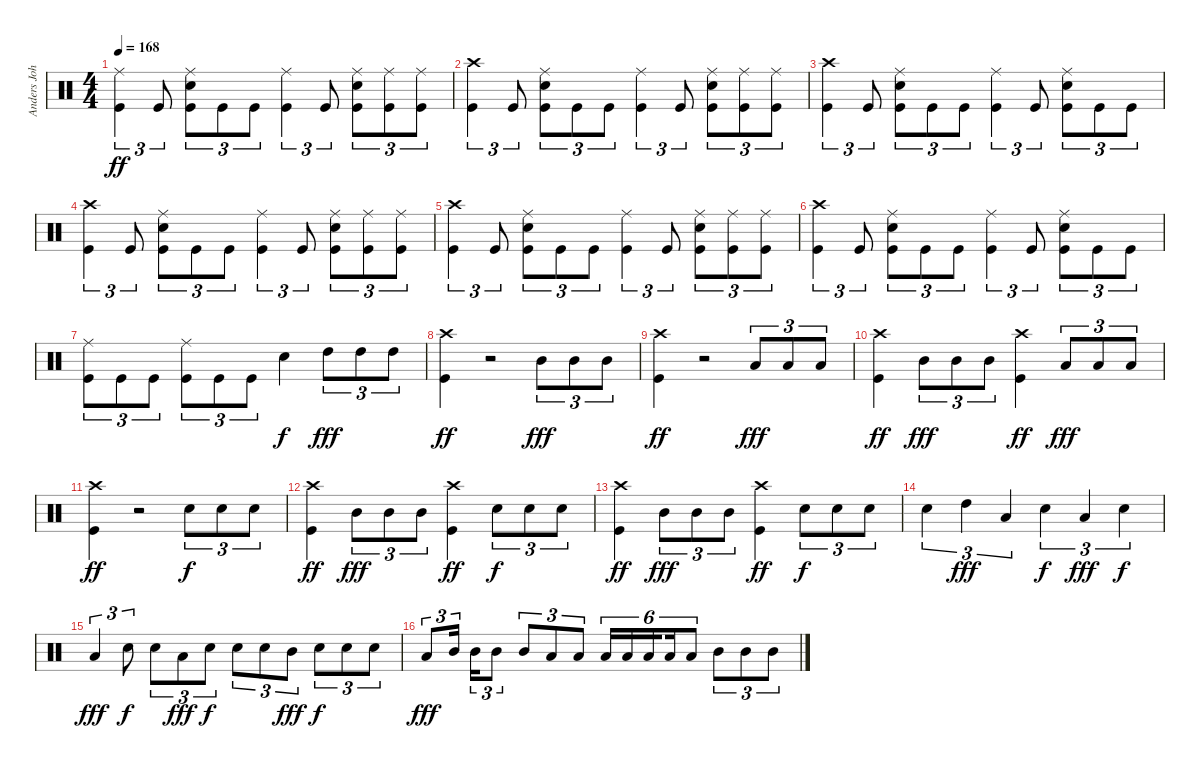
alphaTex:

\track ("Anders Johansson (Drums)" "Anders Joh") {instrument percussion}
\staff {score}
\articulation defaults
\ts (4 4)
\tempo 168
\clef neutral
\ks c
("Ride (middle)" "Kick (hit)").4{tu (3 2) dy ff} "Kick (hit)".8{tu (3 2)} ("Ride (middle)" "Electric Snare (hit)" "Kick (hit)").8{tu (3 2)} "Kick (hit)".8{tu (3 2)} "Kick (hit)".8{tu (3 2)} ("Ride (middle)" "Kick (hit)").4{tu (3 2)} "Kick (hit)".8{tu (3 2)} ("Ride (middle)" "Electric Snare (hit)" "Kick (hit)").8{tu (3 2)} ("Ride (middle)" "Kick (hit)").8{tu (3 2)} ("Ride (middle)" "Kick (hit)").8{tu (3 2)} |
("Crash high (hit)" "Kick (hit)").4{tu (3 2)} "Kick (hit)".8{tu (3 2)} ("Ride (middle)" "Electric Snare (hit)" "Kick (hit)").8{tu (3 2)} "Kick (hit)".8{tu (3 2)} "Kick (hit)".8{tu (3 2)} ("Ride (middle)" "Kick (hit)").4{tu (3 2)} "Kick (hit)".8{tu (3 2)} ("Ride (middle)" "Electric Snare (hit)" "Kick (hit)").8{tu (3 2)} ("Ride (middle)" "Kick (hit)").8{tu (3 2)} ("Ride (middle)" "Kick (hit)").8{tu (3 2)} |
("Crash high (hit)" "Kick (hit)").4{tu (3 2)} "Kick (hit)".8{tu (3 2)} ("Ride (middle)" "Electric Snare (hit)" "Kick (hit)").8{tu (3 2)} "Kick (hit)".8{tu (3 2)} "Kick (hit)".8{tu (3 2)} ("Ride (middle)" "Kick (hit)").4{tu (3 2)} "Kick (hit)".8{tu (3 2)} ("Ride (middle)" "Electric Snare (hit)" "Kick (hit)").8{tu (3 2)} "Kick (hit)".8{tu (3 2)} "Kick (hit)".8{tu (3 2)} |
("Crash high (hit)" "Kick (hit)").4{tu (3 2)} "Kick (hit)".8{tu (3 2)} ("Ride (middle)" "Electric Snare (hit)" "Kick (hit)").8{tu (3 2)} "Kick (hit)".8{tu (3 2)} "Kick (hit)".8{tu (3 2)} ("Ride (middle)" "Kick (hit)").4{tu (3 2)} "Kick (hit)".8{tu (3 2)} ("Ride (middle)" "Electric Snare (hit)" "Kick (hit)").8{tu (3 2)} ("Ride (middle)" "Kick (hit)").8{tu (3 2)} ("Ride (middle)" "Kick (hit)").8{tu (3 2)} |
("Crash high (hit)" "Kick (hit)").4{tu (3 2)} "Kick (hit)".8{tu (3 2)} ("Ride (middle)" "Electric Snare (hit)" "Kick (hit)").8{tu (3 2)} "Kick (hit)".8{tu (3 2)} "Kick (hit)".8{tu (3 2)} ("Ride (middle)" "Kick (hit)").4{tu (3 2)} "Kick (hit)".8{tu (3 2)} ("Ride (middle)" "Electric Snare (hit)" "Kick (hit)").8{tu (3 2)} ("Ride (middle)" "Kick (hit)").8{tu (3 2)} ("Ride (middle)" "Kick (hit)").8{tu (3 2)} |
("Crash high (hit)" "Kick (hit)").4{tu (3 2)} "Kick (hit)".8{tu (3 2)} ("Ride (middle)" "Electric Snare (hit)" "Kick (hit)").8{tu (3 2)} "Kick (hit)".8{tu (3 2)} "Kick (hit)".8{tu (3 2)} ("Ride (middle)" "Kick (hit)").4{tu (3 2)} "Kick (hit)".8{tu (3 2)} ("Ride (middle)" "Electric Snare (hit)" "Kick (hit)").8{tu (3 2)} "Kick (hit)".8{tu (3 2)} "Kick (hit)".8{tu (3 2)} |
("Ride (middle)" "Kick (hit)").8{tu (3 2)} "Kick (hit)".8{tu (3 2)} "Kick (hit)".8{tu (3 2)} ("Ride (middle)" "Kick (hit)").8{tu (3 2)} "Kick (hit)".8{tu (3 2)} "Kick (hit)".8{tu (3 2)} "Electric Snare (hit)".4{dy f} "High Tom (hit)".8{tu (3 2) dy fff} "High Tom (hit)".8{tu (3 2)} "High Tom (hit)".8{tu (3 2)} |
("Crash high (hit)" "Kick (hit)").4{dy ff} r.2 "Mid Tom (hit)".8{tu (3 2) dy fff} "Mid Tom (hit)".8{tu (3 2)} "Mid Tom (hit)".8{tu (3 2)} |
("Crash high (hit)" "Kick (hit)").4{dy ff} r.2 "Low Tom (hit)".8{tu (3 2) dy fff} "Low Tom (hit)".8{tu (3 2)} "Low Tom (hit)".8{tu (3 2)} |
("Crash high (hit)" "Kick (hit)").4{dy ff} "Mid Tom (hit)".8{tu (3 2) dy fff} "Mid Tom (hit)".8{tu (3 2)} "Mid Tom (hit)".8{tu (3 2)} ("Crash high (hit)" "Kick (hit)").4{dy ff} "Low Tom (hit)".8{tu (3 2) dy fff} "Low Tom (hit)".8{tu (3 2)} "Low Tom (hit)".8{tu (3 2)} |
("Crash high (hit)" "Kick (hit)").4{dy ff} r.2 "Electric Snare (hit)".8{tu (3 2) dy f} "Electric Snare (hit)".8{tu (3 2)} "Electric Snare (hit)".8{tu (3 2)} |
("Crash high (hit)" "Kick (hit)").4{dy ff} "Mid Tom (hit)".8{tu (3 2) dy fff} "Mid Tom (hit)".8{tu (3 2)} "Mid Tom (hit)".8{tu (3 2)} ("Crash high (hit)" "Kick (hit)").4{dy ff} "Electric Snare (hit)".8{tu (3 2) dy f} "Electric Snare (hit)".8{tu (3 2)} "Electric Snare (hit)".8{tu (3 2)} |
("Crash high (hit)" "Kick (hit)").4{dy ff} "Mid Tom (hit)".8{tu (3 2) dy fff} "Mid Tom (hit)".8{tu (3 2)} "Mid Tom (hit)".8{tu (3 2)} ("Crash high (hit)" "Kick (hit)").4{dy ff} "Electric Snare (hit)".8{tu (3 2) dy f} "Electric Snare (hit)".8{tu (3 2)} "Electric Snare (hit)".8{tu (3 2)} |
"Electric Snare (hit)".4{tu (3 2)} "High Tom (hit)".4{tu (3 2) dy fff} "Low Tom (hit)".4{tu (3 2)} "Electric Snare (hit)".4{tu (3 2) dy f} "Low Tom (hit)".4{tu (3 2) dy fff} "Electric Snare (hit)".4{tu (3 2) dy f} |
"Low Tom (hit)".4{tu (3 2) dy fff} "Electric Snare (hit)".8{tu (3 2) dy f} "Electric Snare (hit)".8{tu (3 2)} "Low Tom (hit)".8{tu (3 2) dy fff} "Electric Snare (hit)".8{tu (3 2) dy f} "Electric Snare (hit)".8{tu (3 2)} "Electric Snare (hit)".8{tu (3 2)} "Mid Tom (hit)".8{tu (3 2) dy fff} "Electric Snare (hit)".8{tu (3 2) dy f} "Electric Snare (hit)".8{tu (3 2)} "Electric Snare (hit)".8{tu (3 2)} |
"Low Tom (hit)".8{tu (3 2) dy fff} "Mid Tom (hit)".16{tu (3 2) beam splitsecondary} "Mid Tom (hit)".16{tu (3 2)} "Mid Tom (hit)".8{tu (3 2)} "Mid Tom (hit)".8{tu (3 2)} "Low Tom (hit)".8{tu (3 2)} "Low Tom (hit)".8{tu (3 2)} "Low Tom (hit)".16{tu (6 4)} "Low Tom (hit)".16{tu (6 4)} "Low Tom (hit)".16{tu (6 4) beam splitsecondary} "Low Tom (hit)".16{tu (6 4)} "Low Tom (hit)".8{tu (6 4)} "Mid Tom (hit)".8{tu (3 2)} "Mid Tom (hit)".8{tu (3 2)} "Mid Tom (hit)".8{tu (3 2)}
